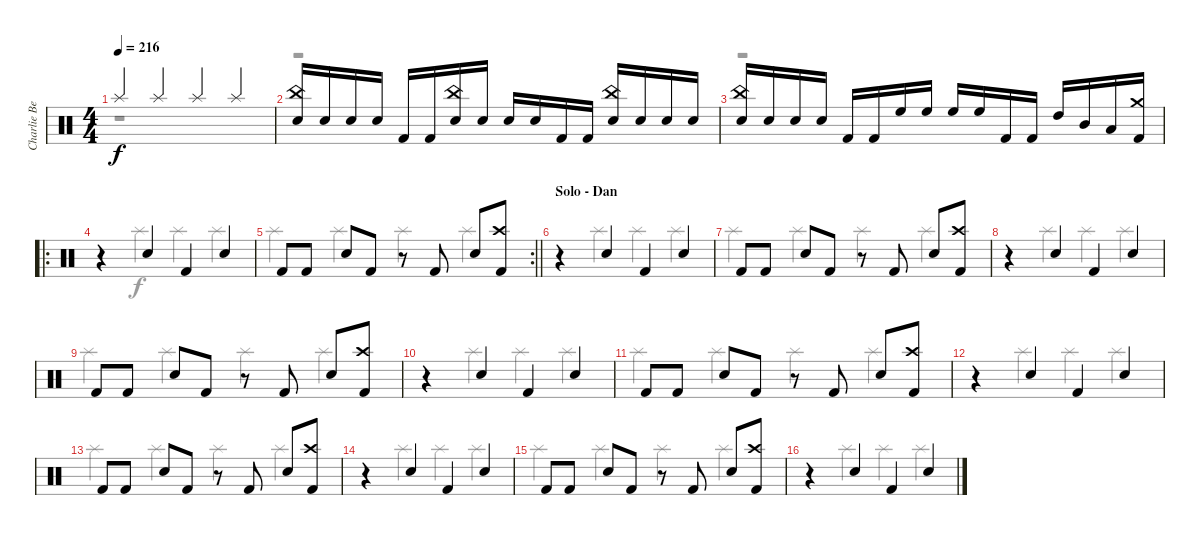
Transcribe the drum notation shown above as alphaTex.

\track ("Charlie Benante" "Charlie Be") {instrument percussion}
\staff {score}
\articulation defaults
\voice
\ts (4 4)
\tempo 216
\clef neutral
\ks c "Splash (hit)".4{dy f} "Splash (hit)".4 "Splash (hit)".4 "Splash (hit)".4
|
("China (hit)" "Electric Snare (hit)").16 "Electric Snare (hit)".16 "Electric Snare (hit)".16 "Electric Snare (hit)".16 "Kick (hit) 2".16 "Kick (hit) 2".16 ("China (hit)" "Electric Snare (hit)").16 "Electric Snare (hit)".16 "Electric Snare (hit)".16 "Electric Snare (hit)".16 "Kick (hit) 2".16 "Kick (hit) 2".16 ("China (hit)" "Electric Snare (hit)").16 "Electric Snare (hit)".16 "Electric Snare (hit)".16 "Electric Snare (hit)".16 |
("China (hit)" "Electric Snare (hit)").16 "Electric Snare (hit)".16 "Electric Snare (hit)".16 "Electric Snare (hit)".16 "Kick (hit) 2".16 "Kick (hit) 2".16 "High Floor Tom (hit)".16 "High Floor Tom (hit)".16 "High Floor Tom (hit)".16 "High Floor Tom (hit)".16 "Kick (hit) 2".16 "Kick (hit) 2".16 "High Tom (hit)".16 "Mid Tom (hit)".16 "Low Tom (hit)".16 ("Crash medium (hit)" "Kick (hit) 2").16 |
\ro
r.4 "Electric Snare (hit)".4 "Kick (hit) 2".4 "Electric Snare (hit)".4 |
\rc 2
\barLineRight lightlight "Kick (hit) 2".8 "Kick (hit) 2".8 "Electric Snare (hit)".8 "Kick (hit) 2".8
r.8 "Kick (hit) 2".8 "Electric Snare (hit)".8 ("Crash high (hit)" "Kick (hit) 2").8 |
\section ("" "Solo - Dan")
r.4 "Electric Snare (hit)".4 "Kick (hit) 2".4 "Electric Snare (hit)".4 |
"Kick (hit) 2".8 "Kick (hit) 2".8 "Electric Snare (hit)".8 "Kick (hit) 2".8 r.8 "Kick (hit) 2".8 "Electric Snare (hit)".8 ("Crash high (hit)" "Kick (hit) 2").8 |
r.4 "Electric Snare (hit)".4 "Kick (hit) 2".4 "Electric Snare (hit)".4 |
"Kick (hit) 2".8 "Kick (hit) 2".8 "Electric Snare (hit)".8 "Kick (hit) 2".8 r.8 "Kick (hit) 2".8 "Electric Snare (hit)".8 ("Crash high (hit)" "Kick (hit) 2").8 |
r.4 "Electric Snare (hit)".4 "Kick (hit) 2".4 "Electric Snare (hit)".4 |
"Kick (hit) 2".8 "Kick (hit) 2".8 "Electric Snare (hit)".8 "Kick (hit) 2".8 r.8 "Kick (hit) 2".8 "Electric Snare (hit)".8 ("Crash high (hit)" "Kick (hit) 2").8 |
r.4 "Electric Snare (hit)".4 "Kick (hit) 2".4 "Electric Snare (hit)".4 |
"Kick (hit) 2".8 "Kick (hit) 2".8 "Electric Snare (hit)".8 "Kick (hit) 2".8 r.8 "Kick (hit) 2".8 "Electric Snare (hit)".8 ("Crash high (hit)" "Kick (hit) 2").8 |
r.4 "Electric Snare (hit)".4 "Kick (hit) 2".4 "Electric Snare (hit)".4 |
"Kick (hit) 2".8 "Kick (hit) 2".8 "Electric Snare (hit)".8 "Kick (hit) 2".8 r.8 "Kick (hit) 2".8 "Electric Snare (hit)".8 ("Crash high (hit)" "Kick (hit) 2").8 |
r.4 "Electric Snare (hit)".4 "Kick (hit) 2".4 "Electric Snare (hit)".4
\voice
\clef neutral
\ottava regular
\simile none
\ks c
r.1{dy f} |
r.1 |
r.1 |
r.4 "Splash (hit)".4 "Splash (hit)".4 "Splash (hit)".4 |
\barLineRight lightlight "Splash (hit)".4 "Splash (hit)".4 "Splash (hit)".4 "Splash (hit)".4
|
r.4 "Splash (hit)".4 "Splash (hit)".4 "Splash (hit)".4 |
"Splash (hit)".4 "Splash (hit)".4 "Splash (hit)".4 "Splash (hit)".4 |
r.4 "Splash (hit)".4 "Splash (hit)".4 "Splash (hit)".4 |
"Splash (hit)".4 "Splash (hit)".4 "Splash (hit)".4 "Splash (hit)".4 |
r.4 "Splash (hit)".4 "Splash (hit)".4 "Splash (hit)".4 |
"Splash (hit)".4 "Splash (hit)".4 "Splash (hit)".4 "Splash (hit)".4 |
r.4 "Splash (hit)".4 "Splash (hit)".4 "Splash (hit)".4 |
"Splash (hit)".4 "Splash (hit)".4 "Splash (hit)".4 "Splash (hit)".4 |
r.4 "Splash (hit)".4 "Splash (hit)".4 "Splash (hit)".4 |
"Splash (hit)".4 "Splash (hit)".4 "Splash (hit)".4 "Splash (hit)".4 |
r.4 "Splash (hit)".4 "Splash (hit)".4 "Splash (hit)".4
